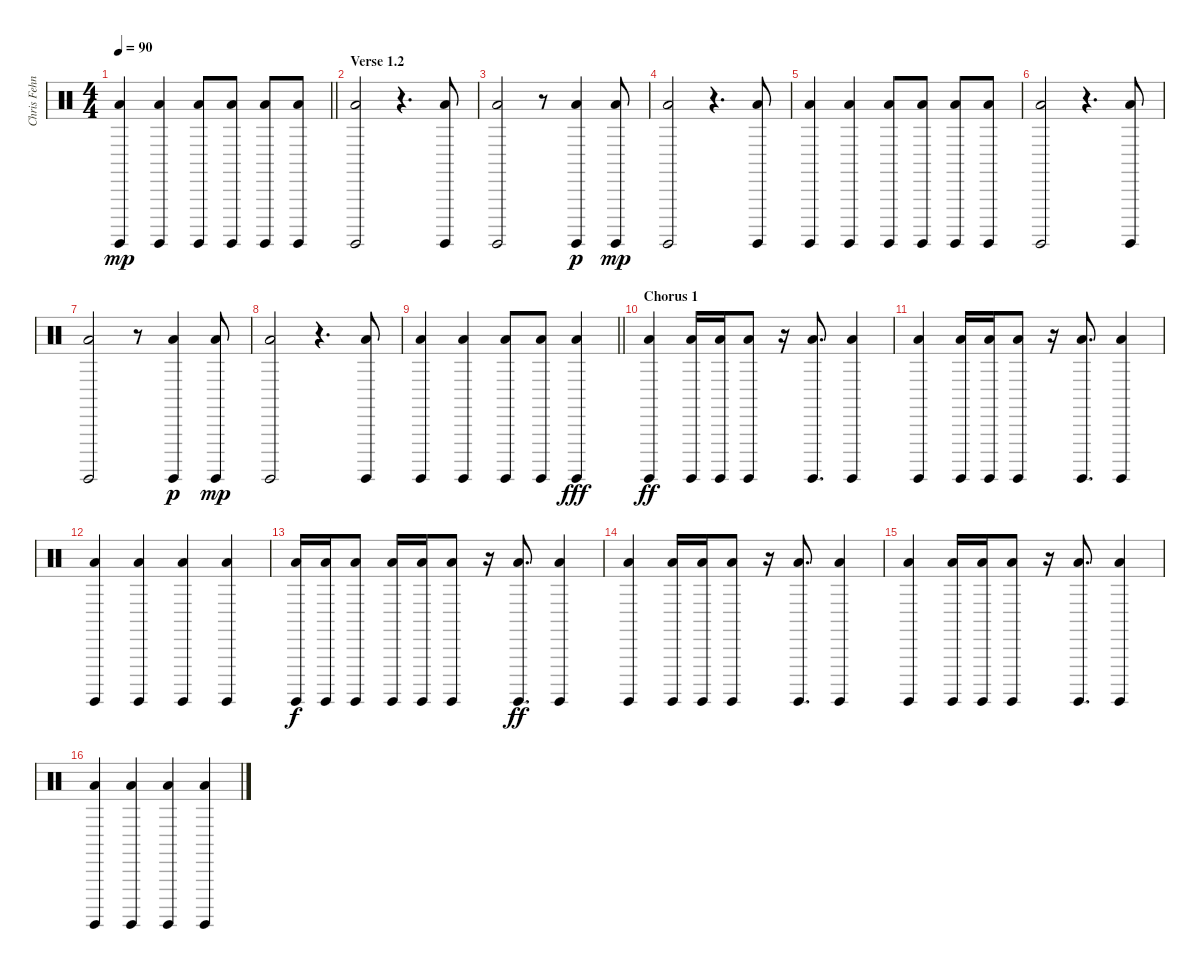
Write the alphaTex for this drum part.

\track ("Chris Fehn" "Chris Fehn") {instrument percussion}
\staff {score}
\articulation defaults
\ts (4 4)
\tempo 90
\clef neutral
\barLineRight lightlight
\ks c
("Surdo (hit)" "Low Floor Tom (hit)").4{dy mp} ("Surdo (hit)" "Low Floor Tom (hit)").4 ("Surdo (hit)" "Low Floor Tom (hit)").8 ("Surdo (hit)" "Low Floor Tom (hit)").8 ("Surdo (hit)" "Low Floor Tom (hit)").8 ("Surdo (hit)" "Low Floor Tom (hit)").8 |
\section ("" "Verse 1.2")
("Surdo (hit)" "Low Floor Tom (hit)").2 r.4{d} ("Surdo (hit)" "Low Floor Tom (hit)").8 |
("Surdo (hit)" "Low Floor Tom (hit)").2 r.8 ("Surdo (hit)" "Low Floor Tom (hit)").4{dy p} ("Surdo (hit)" "Low Floor Tom (hit)").8{dy mp} |
("Surdo (hit)" "Low Floor Tom (hit)").2 r.4{d} ("Surdo (hit)" "Low Floor Tom (hit)").8 |
("Surdo (hit)" "Low Floor Tom (hit)").4 ("Surdo (hit)" "Low Floor Tom (hit)").4 ("Surdo (hit)" "Low Floor Tom (hit)").8 ("Surdo (hit)" "Low Floor Tom (hit)").8 ("Surdo (hit)" "Low Floor Tom (hit)").8 ("Surdo (hit)" "Low Floor Tom (hit)").8 |
("Surdo (hit)" "Low Floor Tom (hit)").2 r.4{d} ("Surdo (hit)" "Low Floor Tom (hit)").8 |
("Surdo (hit)" "Low Floor Tom (hit)").2 r.8 ("Surdo (hit)" "Low Floor Tom (hit)").4{dy p} ("Surdo (hit)" "Low Floor Tom (hit)").8{dy mp} |
("Surdo (hit)" "Low Floor Tom (hit)").2 r.4{d} ("Surdo (hit)" "Low Floor Tom (hit)").8 |
\barLineRight lightlight
("Surdo (hit)" "Low Floor Tom (hit)").4 ("Surdo (hit)" "Low Floor Tom (hit)").4 ("Surdo (hit)" "Low Floor Tom (hit)").8 ("Surdo (hit)" "Low Floor Tom (hit)").8 ("Surdo (hit)" "Low Floor Tom (hit)").4{dy fff} |
\section ("" "Chorus 1")
("Surdo (hit)" "Low Floor Tom (hit)").4{dy ff} ("Surdo (hit)" "Low Floor Tom (hit)").16 ("Surdo (hit)" "Low Floor Tom (hit)").16 ("Surdo (hit)" "Low Floor Tom (hit)").8 r.16 ("Surdo (hit)" "Low Floor Tom (hit)").8{d} ("Surdo (hit)" "Low Floor Tom (hit)").4 |
("Surdo (hit)" "Low Floor Tom (hit)").4 ("Surdo (hit)" "Low Floor Tom (hit)").16 ("Surdo (hit)" "Low Floor Tom (hit)").16 ("Surdo (hit)" "Low Floor Tom (hit)").8 r.16 ("Surdo (hit)" "Low Floor Tom (hit)").8{d} ("Surdo (hit)" "Low Floor Tom (hit)").4 |
("Surdo (hit)" "Low Floor Tom (hit)").4 ("Surdo (hit)" "Low Floor Tom (hit)").4 ("Surdo (hit)" "Low Floor Tom (hit)").4 ("Surdo (hit)" "Low Floor Tom (hit)").4 |
("Surdo (hit)" "Low Floor Tom (hit)").16{dy f} ("Surdo (hit)" "Low Floor Tom (hit)").16 ("Surdo (hit)" "Low Floor Tom (hit)").8 ("Surdo (hit)" "Low Floor Tom (hit)").16 ("Surdo (hit)" "Low Floor Tom (hit)").16 ("Surdo (hit)" "Low Floor Tom (hit)").8 r.16 ("Surdo (hit)" "Low Floor Tom (hit)").8{d dy ff} ("Surdo (hit)" "Low Floor Tom (hit)").4 |
("Surdo (hit)" "Low Floor Tom (hit)").4 ("Surdo (hit)" "Low Floor Tom (hit)").16 ("Surdo (hit)" "Low Floor Tom (hit)").16 ("Surdo (hit)" "Low Floor Tom (hit)").8 r.16 ("Surdo (hit)" "Low Floor Tom (hit)").8{d} ("Surdo (hit)" "Low Floor Tom (hit)").4 |
("Surdo (hit)" "Low Floor Tom (hit)").4 ("Surdo (hit)" "Low Floor Tom (hit)").16 ("Surdo (hit)" "Low Floor Tom (hit)").16 ("Surdo (hit)" "Low Floor Tom (hit)").8 r.16 ("Surdo (hit)" "Low Floor Tom (hit)").8{d} ("Surdo (hit)" "Low Floor Tom (hit)").4 |
("Surdo (hit)" "Low Floor Tom (hit)").4 ("Surdo (hit)" "Low Floor Tom (hit)").4 ("Surdo (hit)" "Low Floor Tom (hit)").4 ("Surdo (hit)" "Low Floor Tom (hit)").4
